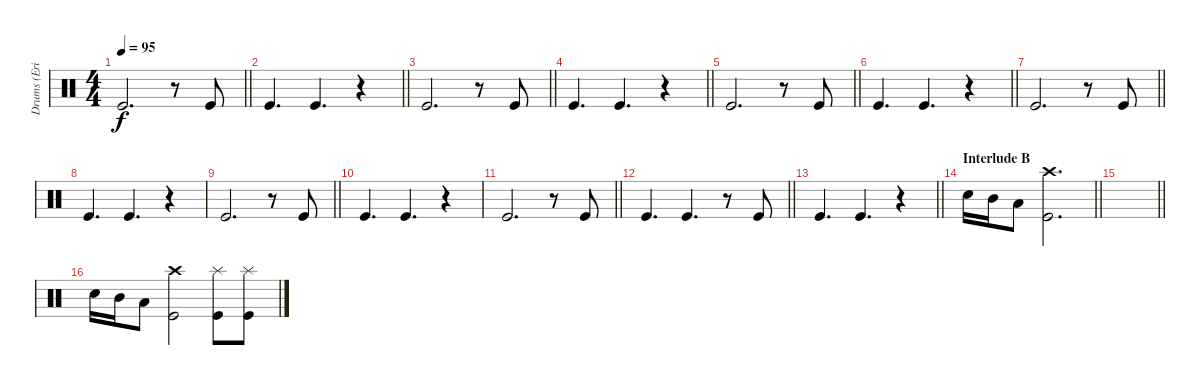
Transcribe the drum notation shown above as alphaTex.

\track ("Drums (Eric Singer)" "Drums (Eri") {instrument percussion}
\staff {score}
\articulation defaults
\ts (4 4)
\tempo 95
\clef neutral
\barLineRight lightlight
\ks c "Kick (hit)".2{d dy f}
r.8 "Kick (hit)".8 |
\barLineRight lightlight "Kick (hit)".4{d} "Kick (hit)".4{d}
r.4 |
\barLineRight lightlight "Kick (hit)".2{d}
r.8 "Kick (hit)".8 |
\barLineRight lightlight "Kick (hit)".4{d} "Kick (hit)".4{d}
r.4 |
\barLineRight lightlight "Kick (hit)".2{d}
r.8 "Kick (hit)".8 |
\barLineRight lightlight "Kick (hit)".4{d} "Kick (hit)".4{d}
r.4 |
\barLineRight lightlight "Kick (hit)".2{d}
r.8 "Kick (hit)".8 |
"Kick (hit)".4{d} "Kick (hit)".4{d} r.4 |
\barLineRight lightlight "Kick (hit)".2{d}
r.8 "Kick (hit)".8 |
"Kick (hit)".4{d} "Kick (hit)".4{d} r.4 |
\barLineRight lightlight "Kick (hit)".2{d}
r.8 "Kick (hit)".8 |
\barLineRight lightlight "Kick (hit)".4{d} "Kick (hit)".4{d}
r.8 "Kick (hit)".8 |
\barLineRight lightlight "Kick (hit)".4{d} "Kick (hit)".4{d}
r.4 |
\section ("" "Interlude B")
\barLineRight lightlight "Snare (hit) 2".16 "Mid Tom (hit)".16 "Low Tom (hit)".8
("Crash high (hit)" "Kick (hit)").2{d} |
\barLineRight lightlight
|
"Snare (hit) 2".16 "Mid Tom (hit)".16 "Low Tom (hit)".8 ("Crash high (hit)" "Kick (hit)").2 ("Splash (hit)" "Kick (hit)").8 ("Splash (hit)" "Kick (hit)").8
